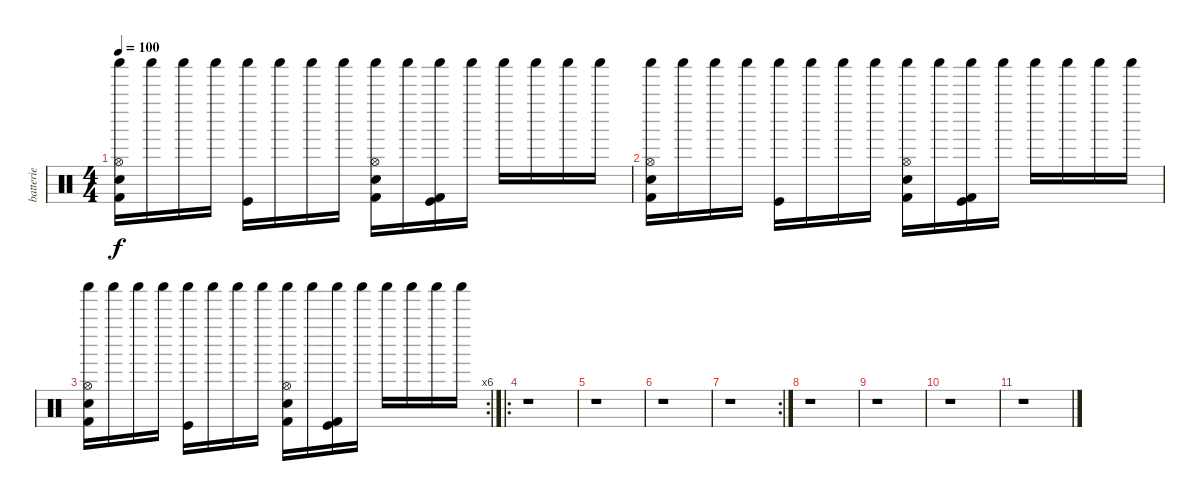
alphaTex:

\track ("batterie" "batterie") {instrument percussion}
\staff {score}
\articulation defaults
\ts (4 4)
\tempo 100
\clef neutral
\ks c
("Shaker (hit)" "Kick (hit) 2" "Electric Snare (hit)" "Hi-Hat (open)").16{dy f} "Shaker (hit)".16 "Shaker (hit)".16 "Shaker (hit)".16 ("Shaker (hit)" "Kick (hit)").16 "Shaker (hit)".16 "Shaker (hit)".16 "Shaker (hit)".16 ("Shaker (hit)" "Kick (hit) 2" "Electric Snare (hit)" "Hi-Hat (open)").16 "Shaker (hit)".16 ("Shaker (hit)" "Kick (hit)" "Kick (hit) 2").16 "Shaker (hit)".16 "Shaker (hit)".16 "Shaker (hit)".16 "Shaker (hit)".16 "Shaker (hit)".16 |
("Shaker (hit)" "Kick (hit) 2" "Electric Snare (hit)" "Hi-Hat (open)").16 "Shaker (hit)".16 "Shaker (hit)".16 "Shaker (hit)".16 ("Shaker (hit)" "Kick (hit)").16 "Shaker (hit)".16 "Shaker (hit)".16 "Shaker (hit)".16 ("Shaker (hit)" "Kick (hit) 2" "Electric Snare (hit)" "Hi-Hat (open)").16 "Shaker (hit)".16 ("Shaker (hit)" "Kick (hit)" "Kick (hit) 2").16 "Shaker (hit)".16 "Shaker (hit)".16 "Shaker (hit)".16 "Shaker (hit)".16 "Shaker (hit)".16 |
\rc 6
("Shaker (hit)" "Kick (hit) 2" "Electric Snare (hit)" "Hi-Hat (open)").16 "Shaker (hit)".16 "Shaker (hit)".16 "Shaker (hit)".16 ("Shaker (hit)" "Kick (hit)").16 "Shaker (hit)".16 "Shaker (hit)".16 "Shaker (hit)".16 ("Shaker (hit)" "Kick (hit) 2" "Electric Snare (hit)" "Hi-Hat (open)").16 "Shaker (hit)".16 ("Shaker (hit)" "Kick (hit)" "Kick (hit) 2").16 "Shaker (hit)".16 "Shaker (hit)".16 "Shaker (hit)".16 "Shaker (hit)".16 "Shaker (hit)".16 |
\ro
r.1 |
r.1 |
r.1 |
\rc 2
r.1 |
r.1 |
r.1 |
r.1 |
r.1
